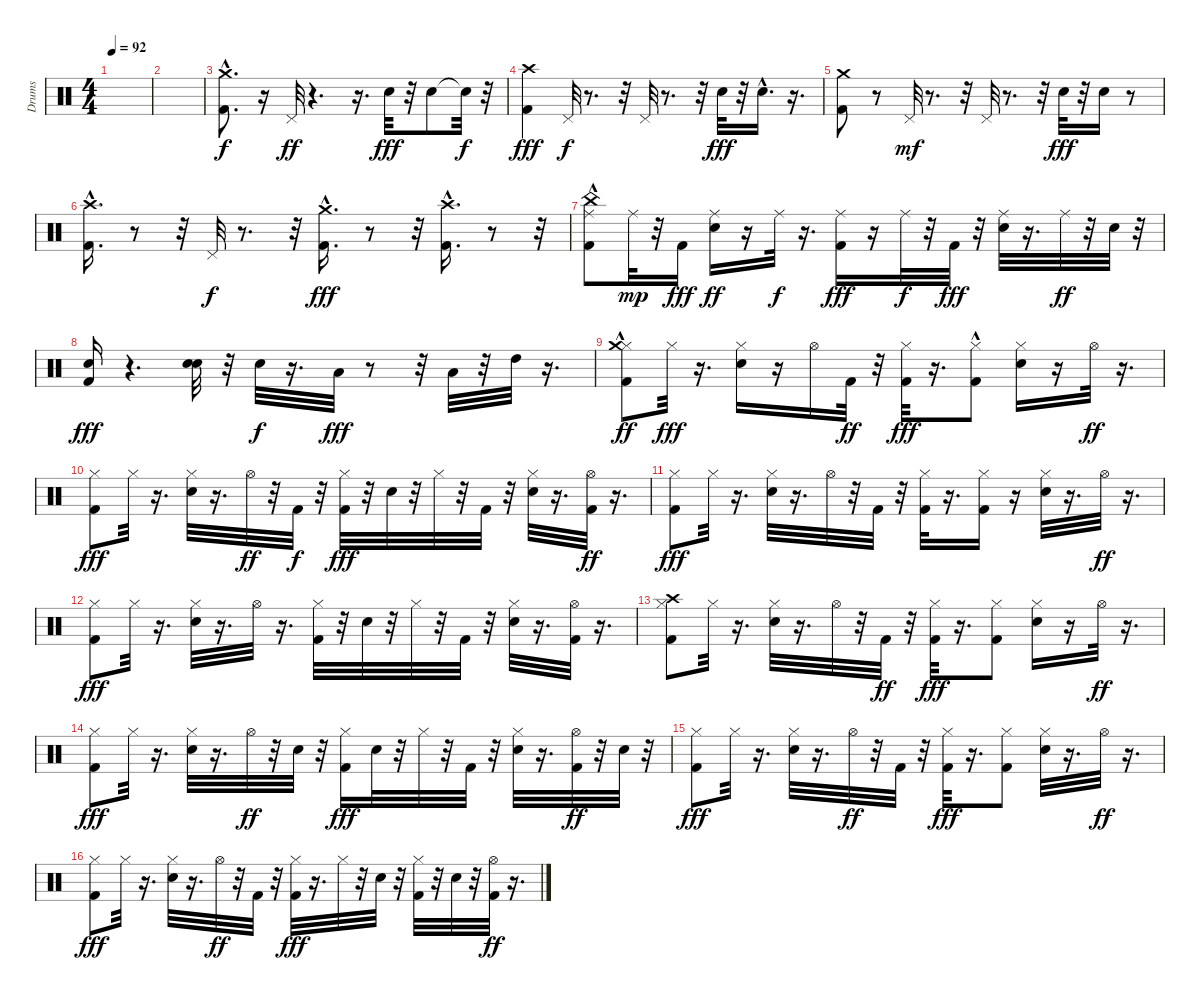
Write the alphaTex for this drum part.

\track ("Drums" "Drums") {instrument percussion}
\staff {score}
\articulation defaults
\ts (4 4)
\tempo 92
\clef neutral
\ks c
|
|
("Kick (hit) 2" "Crash medium (hit)"{hac}).8{d} r.16 "Pedal Hi-Hat (hit)".32{dy ff} r.4{d} r.16{d} "Snare (hit) 2".32{dy fff} r.32 "Snare (hit) 2".8 "Snare (hit)"{t}.32{dy f} r.32 |
("Kick (hit) 2" "Crash high (hit)").4{dy fff} "Pedal Hi-Hat (hit)".32{dy f} r.8{d} r.32 "Pedal Hi-Hat (hit)".32 r.8{d} r.32 "Snare (hit) 2".32{dy fff} r.32 "Snare (hit) 2"{hac}.16{d} r.16{d} |
("Kick (hit) 2" "Crash medium (hit)").8 r.8 "Pedal Hi-Hat (hit)".32{dy mf} r.8{d} r.32 "Pedal Hi-Hat (hit)".32 r.8{d} r.32 "Snare (hit) 2".32{dy fff} r.32 "Snare (hit) 2".16 r.8 |
("Kick (hit) 2"{hac} "Crash high (hit)").16{d} r.8 r.32 "Pedal Hi-Hat (hit)".32{dy f} r.8{d} r.32 ("Kick (hit) 2"{hac} "Crash medium (hit)").16{d dy fff} r.8 r.32 ("Kick (hit) 2"{hac} "Crash high (hit)").16{d} r.8 r.32 |
("Kick (hit) 2"{hac} "Ride (middle)" "China (hit)").8 "Ride (middle)".32{dy mp} r.32 "Kick (hit) 2".16{dy fff} ("Snare (hit) 2" "Ride (middle)").16{dy ff} r.16 "Ride (middle)".32{dy f} r.16{d} ("Kick (hit) 2" "Ride (middle)").16{dy fff} r.16 "Ride (middle)".32{dy f} r.32 "Kick (hit) 2".32{dy fff} r.32 ("Snare (hit) 2" "Ride (middle)").32 r.16{d} "Ride (middle)".32{dy ff} r.32 "Snare (hit) 2".32 r.32 |
("Snare (hit) 2" "Kick (hit) 2").16{dy fff} r.4{d} ("Snare (hit) 2" "Snare (hit) 2").32 r.32 "Snare (hit) 2".32{dy f} r.16{d} "Low Tom (hit)".32{dy fff} r.8 r.32 "Low Floor Tom (hit)".32 r.32 "High Tom (hit)".32 r.16{d} |
("Kick (hit) 2" "Hi-Hat (closed)" "Crash medium (hit)"{hac}).8{dy ff} "Hi-Hat (closed)".32{dy fff} r.16{d} ("Snare (hit) 2" "Hi-Hat (closed)").16 r.16 "Hi-Hat (open)".16 "Kick (hit) 2".32{dy ff} r.32 ("Kick (hit) 2" "Hi-Hat (closed)").32{dy fff} r.16{d} ("Kick (hit) 2"{hac} "Hi-Hat (closed)").8 ("Snare (hit) 2" "Hi-Hat (closed)").16 r.16 "Hi-Hat (open)".32{dy ff} r.16{d} |
("Kick (hit) 2" "Hi-Hat (closed)").8{dy fff} "Hi-Hat (closed)".32 r.16{d} ("Snare (hit) 2" "Hi-Hat (closed)").32 r.16{d} "Hi-Hat (open)".32{dy ff} r.32 "Kick (hit) 2".32{dy f} r.32 ("Kick (hit) 2" "Hi-Hat (closed)").32{dy fff} r.32 "Snare (hit) 2".32 r.32 "Hi-Hat (closed)".32 r.32 "Kick (hit) 2".32 r.32 ("Snare (hit) 2" "Hi-Hat (closed)").32 r.16{d} ("Kick (hit) 2" "Hi-Hat (open)").32{dy ff} r.16{d} |
("Kick (hit) 2" "Hi-Hat (closed)").8{dy fff} "Hi-Hat (closed)".32 r.16{d} ("Snare (hit) 2" "Hi-Hat (closed)").32 r.16{d} "Hi-Hat (open)".32 r.32 "Kick (hit) 2".32 r.32 ("Kick (hit) 2" "Hi-Hat (closed)").32 r.16{d} ("Kick (hit) 2" "Hi-Hat (closed)").16 r.16 ("Snare (hit) 2" "Hi-Hat (closed)").32 r.16{d} "Hi-Hat (open)".32{dy ff} r.16{d} |
("Kick (hit) 2" "Hi-Hat (closed)").8{dy fff} "Hi-Hat (closed)".32 r.16{d} ("Snare (hit) 2" "Hi-Hat (closed)").32 r.16{d} "Hi-Hat (open)".32 r.16{d} ("Kick (hit) 2" "Hi-Hat (closed)").32 r.32 "Snare (hit) 2".32 r.32 "Hi-Hat (closed)".32 r.32 "Kick (hit) 2".32 r.32 ("Snare (hit) 2" "Hi-Hat (closed)").32 r.16{d} ("Kick (hit) 2" "Hi-Hat (open)").32 r.16{d} |
("Kick (hit) 2" "Hi-Hat (closed)" "Crash high (hit)").8 "Hi-Hat (closed)".32 r.16{d} ("Snare (hit) 2" "Hi-Hat (closed)").32 r.16{d} "Hi-Hat (open)".32 r.32 "Kick (hit) 2".32{dy ff} r.32 ("Kick (hit) 2" "Hi-Hat (closed)").32{dy fff} r.16{d} ("Kick (hit) 2" "Hi-Hat (closed)").8 ("Snare (hit) 2" "Hi-Hat (closed)").16 r.16 "Hi-Hat (open)".32{dy ff} r.16{d} |
("Kick (hit) 2" "Hi-Hat (closed)").8{dy fff} "Hi-Hat (closed)".32 r.16{d} ("Snare (hit) 2" "Hi-Hat (closed)").32 r.16{d} "Hi-Hat (open)".32{dy ff} r.32 "Snare (hit) 2".32 r.32 ("Kick (hit) 2" "Hi-Hat (closed)").16{dy fff} "Snare (hit) 2".32 r.32 "Hi-Hat (closed)".32 r.32 "Kick (hit) 2".32 r.32 ("Snare (hit) 2" "Hi-Hat (closed)").32 r.16{d} ("Kick (hit) 2" "Hi-Hat (open)").32{dy ff} r.32 "Snare (hit) 2".32 r.32 |
("Kick (hit) 2" "Hi-Hat (closed)").8{dy fff} "Hi-Hat (closed)".32 r.16{d} ("Snare (hit) 2" "Hi-Hat (closed)").32 r.16{d} "Hi-Hat (open)".32{dy ff} r.32 "Kick (hit) 2".32 r.32 ("Kick (hit) 2" "Hi-Hat (closed)").32{dy fff} r.16{d} ("Kick (hit) 2" "Hi-Hat (closed)").8 ("Snare (hit) 2" "Hi-Hat (closed)").32 r.16{d} "Hi-Hat (open)".32{dy ff} r.16{d} |
("Kick (hit) 2" "Hi-Hat (closed)").8{dy fff} "Hi-Hat (closed)".32 r.16{d} ("Snare (hit) 2" "Hi-Hat (closed)").32 r.16{d} "Hi-Hat (open)".32{dy ff} r.32 "Kick (hit) 2".32 r.32 ("Kick (hit) 2" "Hi-Hat (closed)").32{dy fff} r.16{d} "Hi-Hat (closed)".32 r.32 "Snare (hit) 2".32 r.32 ("Kick (hit) 2" "Hi-Hat (closed)").32 r.32 "Snare (hit) 2".32 r.32 ("Kick (hit) 2" "Hi-Hat (open)").32{dy ff} r.16{d}
